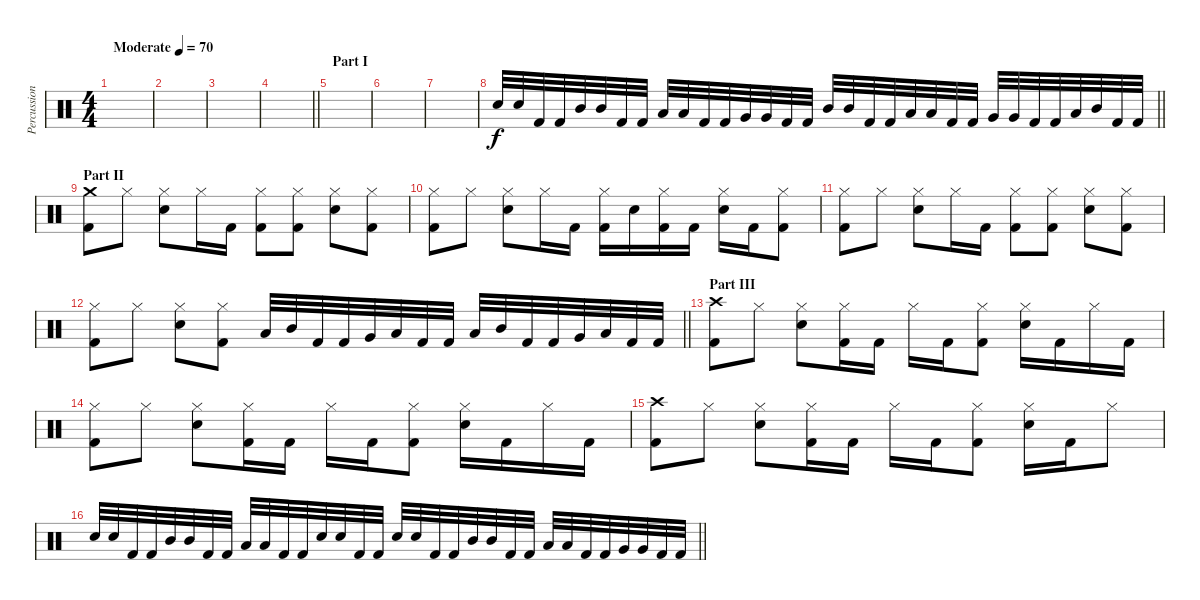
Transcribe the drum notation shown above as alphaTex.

\track ("Percussion" "Percussion") {instrument percussion}
\staff {score}
\articulation defaults
\ts (4 4)
\tempo (70 "Moderate")
\clef neutral
\ks c
|
|
|
\barLineRight lightlight
|
\section ("" "Part I")
|
|
|
\barLineRight lightlight "Snare (hit) 2".32 "Snare (hit) 2".32 "Kick (hit) 2".32 "Kick (hit) 2".32 "Mid Tom (hit)".32 "Mid Tom (hit)".32 "Kick (hit) 2".32 "Kick (hit) 2".32 "Low Tom (hit)".32 "Low Tom (hit)".32 "Kick (hit) 2".32 "Kick (hit) 2".32 "Very Low Tom (hit)".32 "Very Low Tom (hit)".32 "Kick (hit) 2".32 "Kick (hit) 2".32 "Mid Tom (hit)".32 "Mid Tom (hit)".32 "Kick (hit) 2".32 "Kick (hit) 2".32 "Low Tom (hit)".32 "Low Tom (hit)".32 "Kick (hit) 2".32 "Kick (hit) 2".32 "Very Low Tom (hit)".32 "Very Low Tom (hit)".32 "Kick (hit) 2".32 "Kick (hit) 2".32 "Low Tom (hit)".32 "Mid Tom (hit)".32 "Kick (hit) 2".32 "Kick (hit) 2".32
|
\section ("" "Part II")
("Crash medium (hit)" "Kick (hit) 2").8 "Hi-Hat (closed)".8 ("Hi-Hat (closed)" "Snare (hit) 2").8 "Hi-Hat (closed)".16 "Kick (hit) 2".16 ("Hi-Hat (closed)" "Kick (hit) 2").8 ("Hi-Hat (closed)" "Kick (hit) 2").8 ("Hi-Hat (closed)" "Snare (hit) 2").8 ("Hi-Hat (closed)" "Kick (hit) 2").8 |
("Hi-Hat (closed)" "Kick (hit) 2").8 "Hi-Hat (closed)".8 ("Hi-Hat (closed)" "Snare (hit) 2").8 "Hi-Hat (closed)".16 "Kick (hit) 2".16 ("Hi-Hat (closed)" "Kick (hit) 2").16 "Snare (hit) 2".16 ("Hi-Hat (closed)" "Kick (hit) 2").16 "Kick (hit) 2".16 ("Hi-Hat (closed)" "Snare (hit) 2").16 "Kick (hit) 2".16 ("Hi-Hat (closed)" "Kick (hit) 2").8 |
("Hi-Hat (closed)" "Kick (hit) 2").8 "Hi-Hat (closed)".8 ("Hi-Hat (closed)" "Snare (hit) 2").8 "Hi-Hat (closed)".16 "Kick (hit) 2".16 ("Hi-Hat (closed)" "Kick (hit) 2").8 ("Hi-Hat (closed)" "Kick (hit) 2").8 ("Hi-Hat (closed)" "Snare (hit) 2").8 ("Hi-Hat (closed)" "Kick (hit) 2").8 |
\barLineRight lightlight
("Hi-Hat (closed)" "Kick (hit) 2").8 "Hi-Hat (closed)".8 ("Hi-Hat (closed)" "Snare (hit) 2").8 ("Hi-Hat (closed)" "Kick (hit) 2").8 "Low Tom (hit)".32 "Mid Tom (hit)".32 "Kick (hit) 2".32 "Kick (hit) 2".32 "Very Low Tom (hit)".32 "Low Tom (hit)".32 "Kick (hit) 2".32 "Kick (hit) 2".32 "Low Tom (hit)".32 "Mid Tom (hit)".32 "Kick (hit) 2".32 "Kick (hit) 2".32 "Very Low Tom (hit)".32 "Low Tom (hit)".32 "Kick (hit) 2".32 "Kick (hit) 2".32 |
\section ("" "Part III")
("Crash high (hit)" "Kick (hit) 2").8 "Hi-Hat (closed)".8 ("Hi-Hat (closed)" "Snare (hit) 2").8 ("Hi-Hat (closed)" "Kick (hit) 2").16 "Kick (hit) 2".16 "Hi-Hat (closed)".16 "Kick (hit) 2".16 ("Hi-Hat (closed)" "Kick (hit) 2").8 ("Hi-Hat (closed)" "Snare (hit) 2").16 "Kick (hit) 2".16 "Hi-Hat (closed)".16 "Kick (hit) 2".16 |
("Hi-Hat (closed)" "Kick (hit) 2").8 "Hi-Hat (closed)".8 ("Hi-Hat (closed)" "Snare (hit) 2").8 ("Hi-Hat (closed)" "Kick (hit) 2").16 "Kick (hit) 2".16 "Hi-Hat (closed)".16 "Kick (hit) 2".16 ("Hi-Hat (closed)" "Kick (hit) 2").8 ("Hi-Hat (closed)" "Snare (hit) 2").16 "Kick (hit) 2".16 "Hi-Hat (closed)".16 "Kick (hit) 2".16 |
("Crash high (hit)" "Kick (hit) 2").8 "Hi-Hat (closed)".8 ("Hi-Hat (closed)" "Snare (hit) 2").8 ("Hi-Hat (closed)" "Kick (hit) 2").16 "Kick (hit) 2".16 "Hi-Hat (closed)".16 "Kick (hit) 2".16 ("Hi-Hat (closed)" "Kick (hit) 2").8 ("Hi-Hat (closed)" "Snare (hit) 2").16 "Kick (hit) 2".16 "Hi-Hat (closed)".8 |
\barLineRight lightlight "Snare (hit) 2".32 "Snare (hit) 2".32 "Kick (hit) 2".32 "Kick (hit) 2".32 "Mid Tom (hit)".32 "Mid Tom (hit)".32 "Kick (hit) 2".32 "Kick (hit) 2".32 "Low Tom (hit)".32 "Low Tom (hit)".32 "Kick (hit) 2".32 "Kick (hit) 2".32 "Snare (hit) 2".32 "Snare (hit) 2".32 "Kick (hit) 2".32 "Kick (hit) 2".32 "Snare (hit) 2".32 "Snare (hit) 2".32 "Kick (hit) 2".32 "Kick (hit) 2".32 "Mid Tom (hit)".32 "Mid Tom (hit)".32 "Kick (hit) 2".32 "Kick (hit) 2".32 "Low Tom (hit)".32 "Low Tom (hit)".32 "Kick (hit) 2".32 "Kick (hit) 2".32 "Very Low Tom (hit)".32 "Very Low Tom (hit)".32 "Kick (hit) 2".32 "Kick (hit) 2".32
